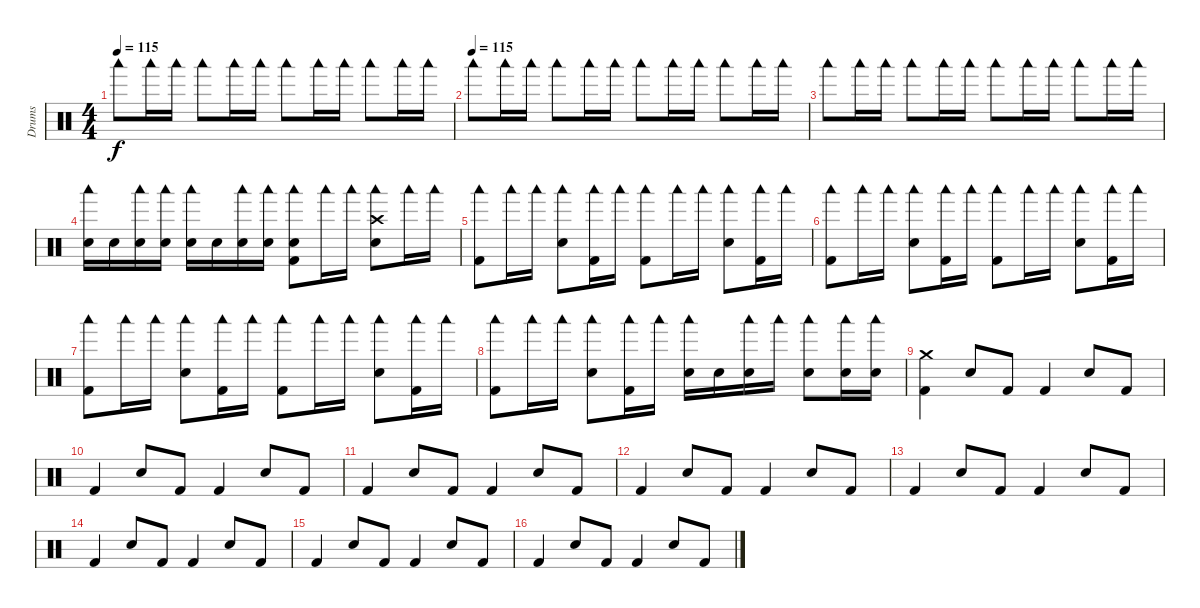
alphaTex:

\track ("Drums" "Drums") {instrument percussion}
\staff {score}
\articulation defaults
\ts (4 4)
\tempo 115
\clef neutral
\ks c "Woodblock low (hit)".8{dy f} "Woodblock low (hit)".16 "Woodblock low (hit)".16 "Woodblock low (hit)".8 "Woodblock low (hit)".16 "Woodblock low (hit)".16 "Woodblock low (hit)".8 "Woodblock low (hit)".16 "Woodblock low (hit)".16 "Woodblock low (hit)".8 "Woodblock low (hit)".16 "Woodblock low (hit)".16
|
\tempo (115)
"Woodblock low (hit)".8 "Woodblock low (hit)".16 "Woodblock low (hit)".16 "Woodblock low (hit)".8 "Woodblock low (hit)".16 "Woodblock low (hit)".16 "Woodblock low (hit)".8 "Woodblock low (hit)".16 "Woodblock low (hit)".16 "Woodblock low (hit)".8 "Woodblock low (hit)".16 "Woodblock low (hit)".16 |
"Woodblock low (hit)".8 "Woodblock low (hit)".16 "Woodblock low (hit)".16 "Woodblock low (hit)".8 "Woodblock low (hit)".16 "Woodblock low (hit)".16 "Woodblock low (hit)".8 "Woodblock low (hit)".16 "Woodblock low (hit)".16 "Woodblock low (hit)".8 "Woodblock low (hit)".16 "Woodblock low (hit)".16 |
("Snare (hit) 2" "Woodblock low (hit)").16 "Snare (hit) 2".16 ("Snare (hit) 2" "Woodblock low (hit)").16 ("Snare (hit) 2" "Woodblock low (hit)").16 ("Snare (hit) 2" "Woodblock low (hit)").16 "Snare (hit) 2".16 ("Snare (hit) 2" "Woodblock low (hit)").16 ("Snare (hit) 2" "Woodblock low (hit)").16 ("Kick (hit) 2" "Snare (hit) 2" "Woodblock low (hit)").8 "Woodblock low (hit)".16 "Woodblock low (hit)".16 ("Crash high (hit)" "Snare (hit) 2" "Woodblock low (hit)").8 "Woodblock low (hit)".16 "Woodblock low (hit)".16 |
("Kick (hit) 2" "Woodblock low (hit)").8 "Woodblock low (hit)".16 "Woodblock low (hit)".16 ("Snare (hit) 2" "Woodblock low (hit)").8 ("Kick (hit) 2" "Woodblock low (hit)").16 "Woodblock low (hit)".16 ("Kick (hit) 2" "Woodblock low (hit)").8 "Woodblock low (hit)".16 "Woodblock low (hit)".16 ("Snare (hit) 2" "Woodblock low (hit)").8 ("Kick (hit) 2" "Woodblock low (hit)").16 "Woodblock low (hit)".16 |
("Woodblock low (hit)" "Kick (hit) 2").8 "Woodblock low (hit)".16 "Woodblock low (hit)".16 ("Woodblock low (hit)" "Snare (hit) 2").8 ("Woodblock low (hit)" "Kick (hit) 2").16 "Woodblock low (hit)".16 ("Woodblock low (hit)" "Kick (hit) 2").8 "Woodblock low (hit)".16 "Woodblock low (hit)".16 ("Woodblock low (hit)" "Snare (hit) 2").8 ("Woodblock low (hit)" "Kick (hit) 2").16 "Woodblock low (hit)".16 |
("Kick (hit) 2" "Woodblock low (hit)").8 "Woodblock low (hit)".16 "Woodblock low (hit)".16 ("Snare (hit) 2" "Woodblock low (hit)").8 ("Kick (hit) 2" "Woodblock low (hit)").16 "Woodblock low (hit)".16 ("Kick (hit) 2" "Woodblock low (hit)").8 "Woodblock low (hit)".16 "Woodblock low (hit)".16 ("Snare (hit) 2" "Woodblock low (hit)").8 ("Kick (hit) 2" "Woodblock low (hit)").16 "Woodblock low (hit)".16 |
("Kick (hit) 2" "Woodblock low (hit)").8 "Woodblock low (hit)".16 "Woodblock low (hit)".16 ("Snare (hit) 2" "Woodblock low (hit)").8 ("Kick (hit) 2" "Woodblock low (hit)").16 "Woodblock low (hit)".16 ("Snare (hit) 2" "Woodblock low (hit)").16 "Snare (hit) 2".16 ("Snare (hit) 2" "Woodblock low (hit)").16 "Woodblock low (hit)".16 ("Snare (hit) 2" "Woodblock low (hit)").8 ("Snare (hit) 2" "Woodblock low (hit)").16 ("Snare (hit) 2" "Woodblock low (hit)").16 |
("Crash medium (hit)" "Kick (hit) 2").4 "Snare (hit) 2".8 "Kick (hit) 2".8 "Kick (hit) 2".4 "Snare (hit) 2".8 "Kick (hit) 2".8 |
"Kick (hit) 2".4 "Snare (hit) 2".8 "Kick (hit) 2".8 "Kick (hit) 2".4 "Snare (hit) 2".8 "Kick (hit) 2".8 |
"Kick (hit) 2".4 "Snare (hit) 2".8 "Kick (hit) 2".8 "Kick (hit) 2".4 "Snare (hit) 2".8 "Kick (hit) 2".8 |
"Kick (hit) 2".4 "Snare (hit) 2".8 "Kick (hit) 2".8 "Kick (hit) 2".4 "Snare (hit) 2".8 "Kick (hit) 2".8 |
"Kick (hit) 2".4 "Snare (hit) 2".8 "Kick (hit) 2".8 "Kick (hit) 2".4 "Snare (hit) 2".8 "Kick (hit) 2".8 |
"Kick (hit) 2".4 "Snare (hit) 2".8 "Kick (hit) 2".8 "Kick (hit) 2".4 "Snare (hit) 2".8 "Kick (hit) 2".8 |
"Kick (hit) 2".4 "Snare (hit) 2".8 "Kick (hit) 2".8 "Kick (hit) 2".4 "Snare (hit) 2".8 "Kick (hit) 2".8 |
"Kick (hit) 2".4 "Snare (hit) 2".8 "Kick (hit) 2".8 "Kick (hit) 2".4 "Snare (hit) 2".8 "Kick (hit) 2".8
